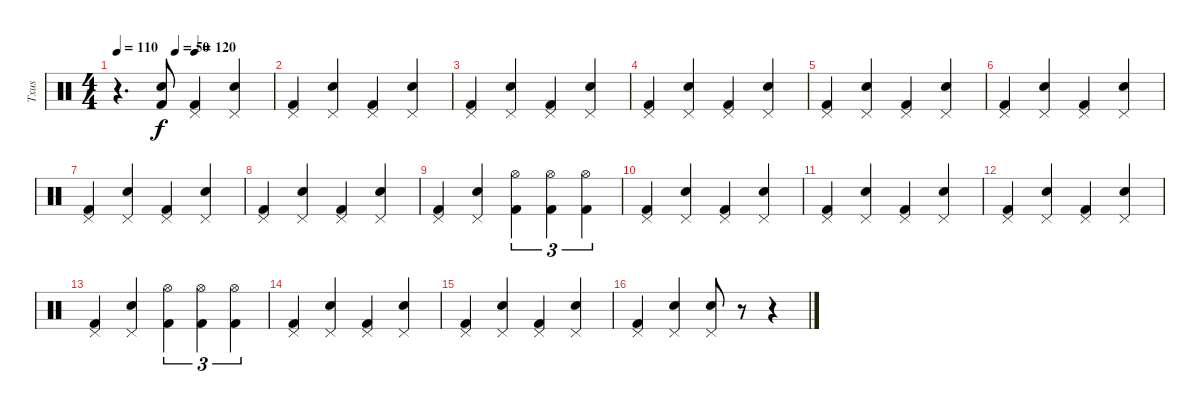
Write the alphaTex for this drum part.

\track ("Txus" "Txus") {instrument percussion}
\staff {score}
\articulation defaults
\ts (4 4)
\tempo 110
\tempo (120 0.5)
\tempo (50 0.375)
\clef neutral
\ks c
r.4{d dy f} ("Snare (hit) 2" "Kick (hit) 2").8 ("Pedal Hi-Hat (hit)" "Kick (hit) 2").4 ("Pedal Hi-Hat (hit)" "Snare (hit) 2").4 |
("Pedal Hi-Hat (hit)" "Kick (hit) 2").4 ("Pedal Hi-Hat (hit)" "Snare (hit) 2").4 ("Pedal Hi-Hat (hit)" "Kick (hit) 2").4 ("Pedal Hi-Hat (hit)" "Snare (hit) 2").4 |
("Pedal Hi-Hat (hit)" "Kick (hit) 2").4 ("Pedal Hi-Hat (hit)" "Snare (hit) 2").4 ("Pedal Hi-Hat (hit)" "Kick (hit) 2").4 ("Pedal Hi-Hat (hit)" "Snare (hit) 2").4 |
("Pedal Hi-Hat (hit)" "Kick (hit) 2").4 ("Pedal Hi-Hat (hit)" "Snare (hit) 2").4 ("Pedal Hi-Hat (hit)" "Kick (hit) 2").4 ("Pedal Hi-Hat (hit)" "Snare (hit) 2").4 |
("Pedal Hi-Hat (hit)" "Kick (hit) 2").4 ("Pedal Hi-Hat (hit)" "Snare (hit) 2").4 ("Pedal Hi-Hat (hit)" "Kick (hit) 2").4 ("Pedal Hi-Hat (hit)" "Snare (hit) 2").4 |
("Pedal Hi-Hat (hit)" "Kick (hit) 2").4 ("Pedal Hi-Hat (hit)" "Snare (hit) 2").4 ("Pedal Hi-Hat (hit)" "Kick (hit) 2").4 ("Pedal Hi-Hat (hit)" "Snare (hit) 2").4 |
("Pedal Hi-Hat (hit)" "Kick (hit) 2").4 ("Pedal Hi-Hat (hit)" "Snare (hit) 2").4 ("Pedal Hi-Hat (hit)" "Kick (hit) 2").4 ("Pedal Hi-Hat (hit)" "Snare (hit) 2").4 |
("Pedal Hi-Hat (hit)" "Kick (hit) 2").4 ("Pedal Hi-Hat (hit)" "Snare (hit) 2").4 ("Pedal Hi-Hat (hit)" "Kick (hit) 2").4 ("Pedal Hi-Hat (hit)" "Snare (hit) 2").4 |
("Pedal Hi-Hat (hit)" "Kick (hit) 2").4 ("Pedal Hi-Hat (hit)" "Snare (hit) 2").4 ("Hi-Hat (open)" "Kick (hit) 2").4{tu (3 2)} ("Hi-Hat (open)" "Kick (hit) 2").4{tu (3 2)} ("Hi-Hat (open)" "Kick (hit) 2").4{tu (3 2)} |
("Pedal Hi-Hat (hit)" "Kick (hit) 2").4 ("Pedal Hi-Hat (hit)" "Snare (hit) 2").4 ("Pedal Hi-Hat (hit)" "Kick (hit) 2").4 ("Pedal Hi-Hat (hit)" "Snare (hit) 2").4 |
("Pedal Hi-Hat (hit)" "Kick (hit) 2").4 ("Pedal Hi-Hat (hit)" "Snare (hit) 2").4 ("Pedal Hi-Hat (hit)" "Kick (hit) 2").4 ("Pedal Hi-Hat (hit)" "Snare (hit) 2").4 |
("Pedal Hi-Hat (hit)" "Kick (hit) 2").4 ("Pedal Hi-Hat (hit)" "Snare (hit) 2").4 ("Pedal Hi-Hat (hit)" "Kick (hit) 2").4 ("Pedal Hi-Hat (hit)" "Snare (hit) 2").4 |
("Pedal Hi-Hat (hit)" "Kick (hit) 2").4 ("Pedal Hi-Hat (hit)" "Snare (hit) 2").4 ("Hi-Hat (open)" "Kick (hit) 2").4{tu (3 2)} ("Hi-Hat (open)" "Kick (hit) 2").4{tu (3 2)} ("Hi-Hat (open)" "Kick (hit) 2").4{tu (3 2)} |
("Pedal Hi-Hat (hit)" "Kick (hit) 2").4 ("Pedal Hi-Hat (hit)" "Snare (hit) 2").4 ("Pedal Hi-Hat (hit)" "Kick (hit) 2").4 ("Pedal Hi-Hat (hit)" "Snare (hit) 2").4 |
("Pedal Hi-Hat (hit)" "Kick (hit) 2").4 ("Pedal Hi-Hat (hit)" "Snare (hit) 2").4 ("Pedal Hi-Hat (hit)" "Kick (hit) 2").4 ("Pedal Hi-Hat (hit)" "Snare (hit) 2").4 |
("Pedal Hi-Hat (hit)" "Kick (hit) 2").4 ("Pedal Hi-Hat (hit)" "Snare (hit) 2").4 ("Pedal Hi-Hat (hit)" "Snare (hit) 2").8 r.8 r.4
